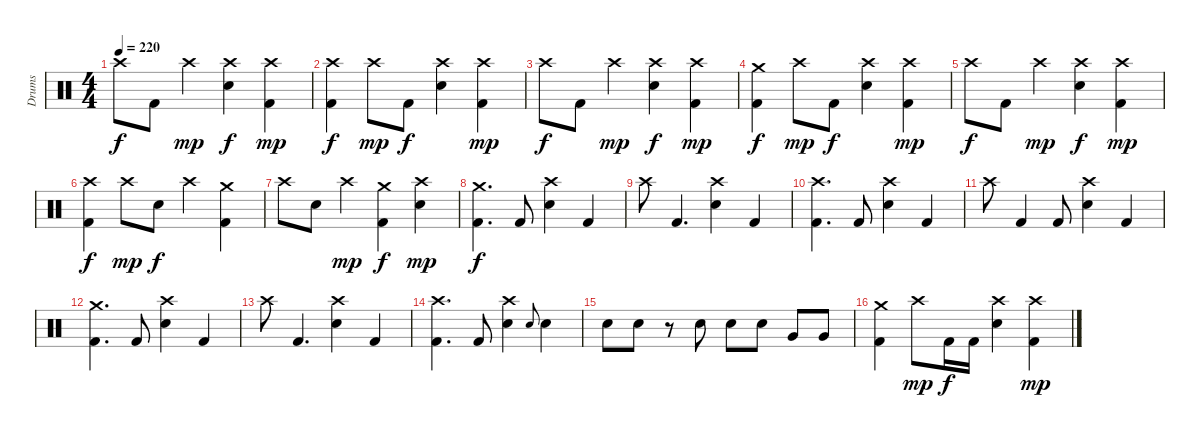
\track ("Drums" "Drums") {instrument percussion}
\staff {score}
\articulation defaults
\ts (4 4)
\tempo 220
\clef neutral
\ks c "Crash high (hit)".8{dy f} "Kick (hit) 2".8 "Crash high (hit)".4{dy mp}
("Electric Snare (hit)" "Crash high (hit)").4{dy f} ("Kick (hit) 2" "Crash high (hit)").4{dy mp} |
("Kick (hit) 2" "Crash high (hit)").4{dy f} "Crash high (hit)".8{dy mp} "Kick (hit) 2".8{dy f} ("Crash high (hit)" "Electric Snare (hit)").4 ("Crash high (hit)" "Kick (hit) 2").4{dy mp} |
"Crash high (hit)".8{dy f} "Kick (hit) 2".8 "Crash high (hit)".4{dy mp} ("Electric Snare (hit)" "Crash high (hit)").4{dy f} ("Kick (hit) 2" "Crash high (hit)").4{dy mp} |
("Kick (hit) 2" "Crash medium (hit)").4{dy f} "Crash high (hit)".8{dy mp} "Kick (hit) 2".8{dy f} ("Crash high (hit)" "Electric Snare (hit)").4 ("Crash high (hit)" "Kick (hit) 2").4{dy mp} |
"Crash high (hit)".8{dy f} "Kick (hit) 2".8 "Crash high (hit)".4{dy mp} ("Electric Snare (hit)" "Crash high (hit)").4{dy f} ("Kick (hit) 2" "Crash high (hit)").4{dy mp} |
("Crash high (hit)" "Kick (hit) 2").4{dy f} "Crash high (hit)".8{dy mp} "Electric Snare (hit)".8{dy f} "Crash high (hit)".4 ("Kick (hit) 2" "Crash medium (hit)").4 |
"Crash high (hit)".8 "Electric Snare (hit)".8 "Crash high (hit)".4{dy mp} ("Kick (hit) 2" "Crash medium (hit)").4{dy f} ("Electric Snare (hit)" "Crash high (hit)").4{dy mp} |
("Crash medium (hit)" "Kick (hit) 2").4{d dy f} "Kick (hit) 2".8 ("Crash high (hit)" "Electric Snare (hit)").4 "Kick (hit) 2".4 |
"Crash high (hit)".8 "Kick (hit) 2".4{d} ("Electric Snare (hit)" "Crash high (hit)").4 "Kick (hit) 2".4 |
("Crash high (hit)" "Kick (hit) 2").4{d} "Kick (hit) 2".8 ("Crash high (hit)" "Electric Snare (hit)").4 "Kick (hit) 2".4 |
"Crash high (hit)".8 "Kick (hit) 2".4 "Kick (hit) 2".8 ("Electric Snare (hit)" "Crash high (hit)").4 "Kick (hit) 2".4 |
("Crash medium (hit)" "Kick (hit) 2").4{d} "Kick (hit) 2".8 ("Crash high (hit)" "Electric Snare (hit)").4 "Kick (hit) 2".4 |
"Crash high (hit)".8 "Kick (hit) 2".4{d} ("Electric Snare (hit)" "Crash high (hit)").4 "Kick (hit) 2".4 |
("Crash high (hit)" "Kick (hit) 2").4{d} "Kick (hit) 2".8 ("Crash high (hit)" "Electric Snare (hit)").4 "Electric Snare (hit)".8{gr onbeat} "Electric Snare (hit)".4 |
"Electric Snare (hit)".8 "Electric Snare (hit)".8 r.8 "Electric Snare (hit)".8 "Electric Snare (hit)".8 "Electric Snare (hit)".8 "Very Low Tom (hit)".8 "Very Low Tom (hit)".8 |
("Kick (hit) 2" "Crash medium (hit)").4 "Crash high (hit)".8{dy mp} "Kick (hit) 2".16{dy f} "Kick (hit) 2".16 ("Crash high (hit)" "Electric Snare (hit)").4 ("Crash high (hit)" "Kick (hit) 2").4{dy mp}
